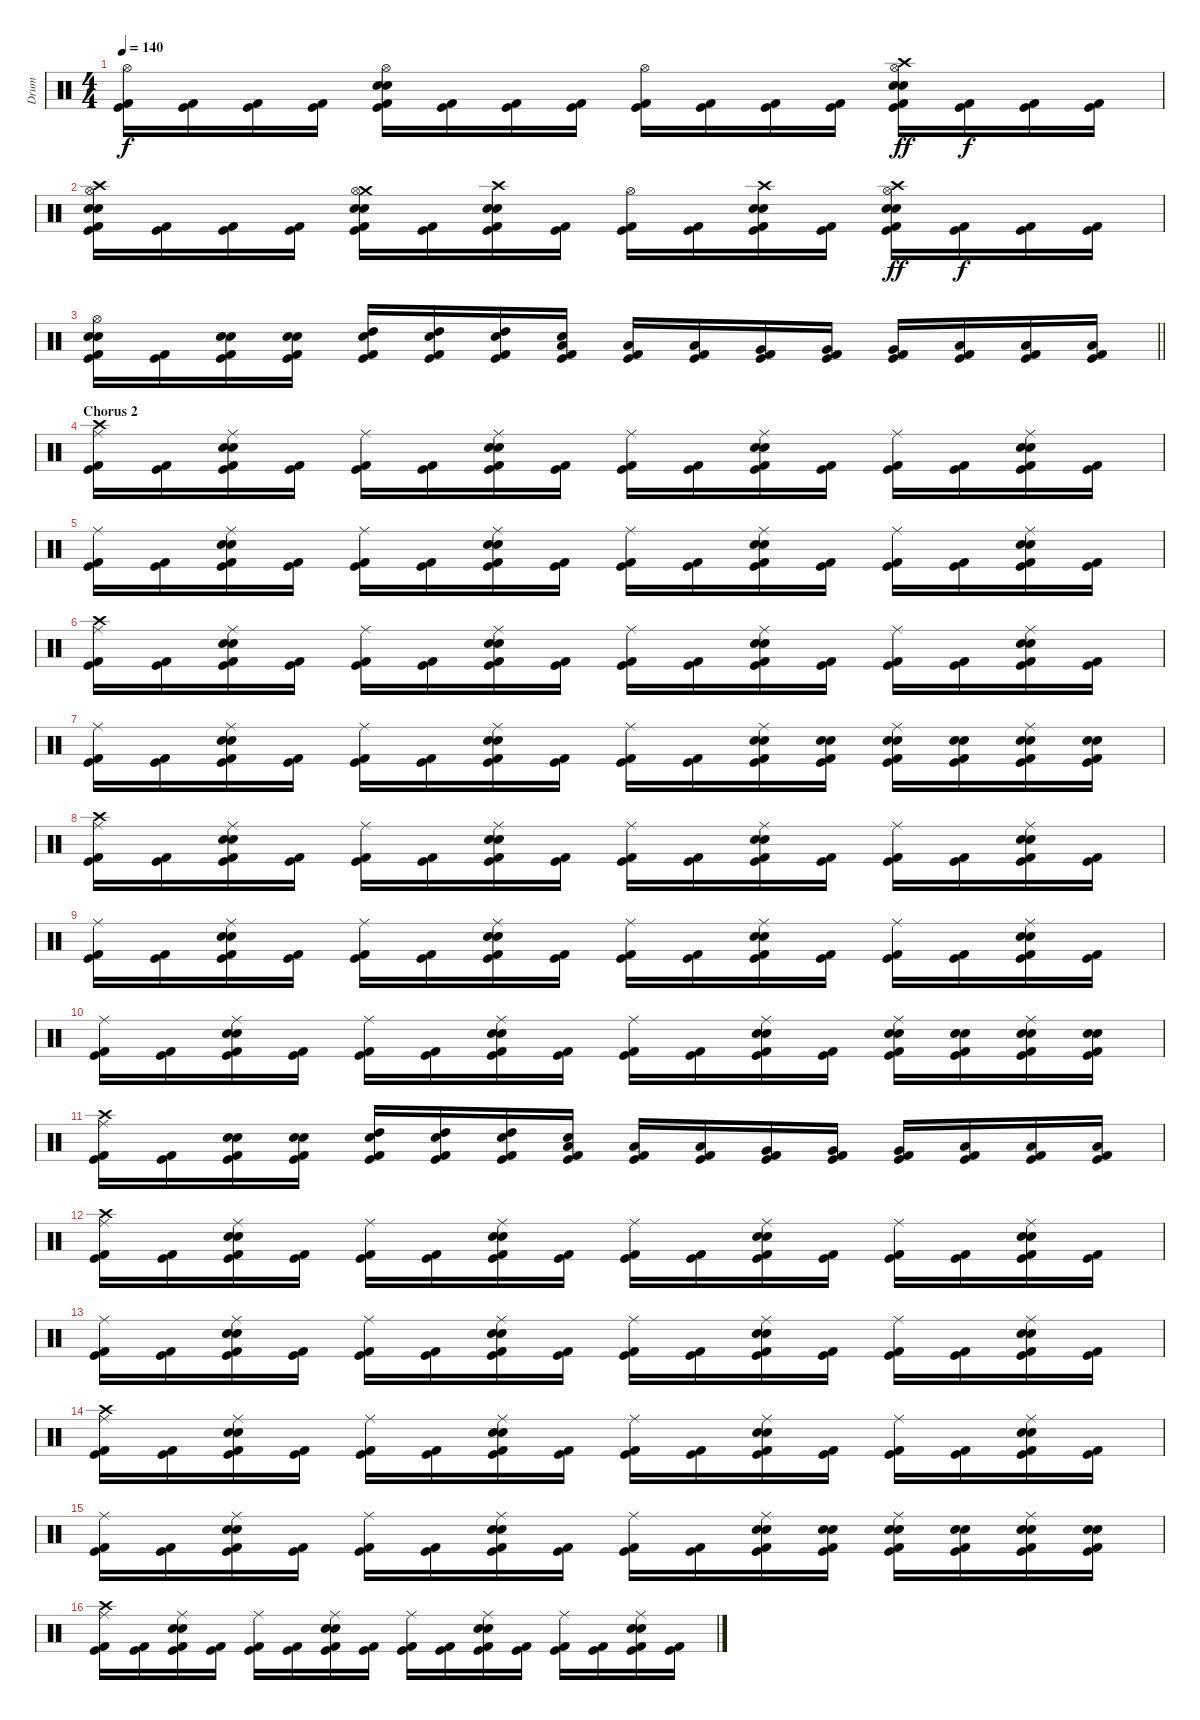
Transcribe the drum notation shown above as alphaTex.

\track ("Drum" "Drum") {instrument percussion}
\staff {score}
\articulation defaults
\ts (4 4)
\tempo 140
\clef neutral
\ks c
("Hi-Hat (open)" "Kick (hit)" "Kick (hit) 2").16{dy f} ("Kick (hit)" "Kick (hit) 2").16 ("Kick (hit)" "Kick (hit) 2").16 ("Kick (hit)" "Kick (hit) 2").16 ("Hi-Hat (open)" "Snare (hit) 2" "Electric Snare (hit)" "Kick (hit)" "Kick (hit) 2").16 ("Kick (hit)" "Kick (hit) 2").16 ("Kick (hit)" "Kick (hit) 2").16 ("Kick (hit)" "Kick (hit) 2").16 ("Hi-Hat (open)" "Kick (hit)" "Kick (hit) 2").16 ("Kick (hit)" "Kick (hit) 2").16 ("Kick (hit)" "Kick (hit) 2").16 ("Kick (hit)" "Kick (hit) 2").16 ("Crash high (hit)" "Hi-Hat (open)" "Snare (hit) 2" "Electric Snare (hit)" "Kick (hit)" "Kick (hit) 2").16{dy ff} ("Kick (hit)" "Kick (hit) 2").16{dy f} ("Kick (hit)" "Kick (hit) 2").16 ("Kick (hit)" "Kick (hit) 2").16 |
("Crash high (hit)" "Hi-Hat (open)" "Snare (hit) 2" "Electric Snare (hit)" "Kick (hit)" "Kick (hit) 2").16 ("Kick (hit)" "Kick (hit) 2").16 ("Kick (hit)" "Kick (hit) 2").16 ("Kick (hit)" "Kick (hit) 2").16 ("Crash medium (hit)" "Hi-Hat (open)" "Snare (hit) 2" "Electric Snare (hit)" "Kick (hit)" "Kick (hit) 2").16 ("Kick (hit)" "Kick (hit) 2").16 ("Crash high (hit)" "Snare (hit) 2" "Electric Snare (hit)" "Kick (hit)" "Kick (hit) 2").16 ("Kick (hit)" "Kick (hit) 2").16 ("Hi-Hat (open)" "Kick (hit)" "Kick (hit) 2").16 ("Kick (hit)" "Kick (hit) 2").16 ("Crash high (hit)" "Snare (hit) 2" "Electric Snare (hit)" "Kick (hit)" "Kick (hit) 2").16 ("Kick (hit)" "Kick (hit) 2").16 ("Crash high (hit)" "Hi-Hat (open)" "Snare (hit) 2" "Electric Snare (hit)" "Kick (hit)" "Kick (hit) 2").16{dy ff} ("Kick (hit)" "Kick (hit) 2").16{dy f} ("Kick (hit)" "Kick (hit) 2").16 ("Kick (hit)" "Kick (hit) 2").16 |
\barLineRight lightlight
("Hi-Hat (open)" "Snare (hit) 2" "Electric Snare (hit)" "Kick (hit)" "Kick (hit) 2").16 ("Kick (hit)" "Kick (hit) 2").16 ("Snare (hit) 2" "Electric Snare (hit)" "Kick (hit)" "Kick (hit) 2").16 ("Snare (hit) 2" "Electric Snare (hit)" "Kick (hit)" "Kick (hit) 2").16 ("High Tom (hit)" "Electric Snare (hit)" "Kick (hit)" "Kick (hit) 2").16 ("High Tom (hit)" "Electric Snare (hit)" "Kick (hit)" "Kick (hit) 2").16 ("High Tom (hit)" "Electric Snare (hit)" "Kick (hit)" "Kick (hit) 2").16 ("Low Tom (hit)" "Electric Snare (hit)" "Kick (hit)" "Kick (hit) 2").16 ("Low Tom (hit)" "Kick (hit)" "Kick (hit) 2").16 ("Low Tom (hit)" "Kick (hit)" "Kick (hit) 2").16 ("Very Low Tom (hit)" "Kick (hit)" "Kick (hit) 2").16 ("Very Low Tom (hit)" "Kick (hit)" "Kick (hit) 2").16 ("Very Low Tom (hit)" "Kick (hit)" "Kick (hit) 2").16 ("Low Floor Tom (hit)" "Kick (hit)" "Kick (hit) 2").16 ("Low Floor Tom (hit)" "Kick (hit)" "Kick (hit) 2").16 ("Low Floor Tom (hit)" "Kick (hit)" "Kick (hit) 2").16 |
\section ("" "Chorus 2")
("Crash high (hit)" "Ride (middle)" "Kick (hit)" "Kick (hit) 2").16 ("Kick (hit)" "Kick (hit) 2").16 ("Ride (middle)" "Snare (hit) 2" "Electric Snare (hit)" "Kick (hit)" "Kick (hit) 2").16 ("Kick (hit)" "Kick (hit) 2").16 ("Ride (middle)" "Kick (hit)" "Kick (hit) 2").16 ("Kick (hit)" "Kick (hit) 2").16 ("Ride (middle)" "Snare (hit) 2" "Electric Snare (hit)" "Kick (hit)" "Kick (hit) 2").16 ("Kick (hit)" "Kick (hit) 2").16 ("Ride (middle)" "Kick (hit)" "Kick (hit) 2").16 ("Kick (hit)" "Kick (hit) 2").16 ("Ride (middle)" "Snare (hit) 2" "Electric Snare (hit)" "Kick (hit)" "Kick (hit) 2").16 ("Kick (hit)" "Kick (hit) 2").16 ("Ride (middle)" "Kick (hit)" "Kick (hit) 2").16 ("Kick (hit)" "Kick (hit) 2").16 ("Ride (middle)" "Snare (hit) 2" "Electric Snare (hit)" "Kick (hit)" "Kick (hit) 2").16 ("Kick (hit)" "Kick (hit) 2").16 |
("Ride (middle)" "Kick (hit)" "Kick (hit) 2").16 ("Kick (hit)" "Kick (hit) 2").16 ("Ride (middle)" "Snare (hit) 2" "Electric Snare (hit)" "Kick (hit)" "Kick (hit) 2").16 ("Kick (hit)" "Kick (hit) 2").16 ("Ride (middle)" "Kick (hit)" "Kick (hit) 2").16 ("Kick (hit)" "Kick (hit) 2").16 ("Ride (middle)" "Snare (hit) 2" "Electric Snare (hit)" "Kick (hit)" "Kick (hit) 2").16 ("Kick (hit)" "Kick (hit) 2").16 ("Ride (middle)" "Kick (hit)" "Kick (hit) 2").16 ("Kick (hit)" "Kick (hit) 2").16 ("Ride (middle)" "Snare (hit) 2" "Electric Snare (hit)" "Kick (hit)" "Kick (hit) 2").16 ("Kick (hit)" "Kick (hit) 2").16 ("Ride (middle)" "Kick (hit)" "Kick (hit) 2").16 ("Kick (hit)" "Kick (hit) 2").16 ("Ride (middle)" "Snare (hit) 2" "Electric Snare (hit)" "Kick (hit)" "Kick (hit) 2").16 ("Kick (hit)" "Kick (hit) 2").16 |
("Crash high (hit)" "Ride (middle)" "Kick (hit)" "Kick (hit) 2").16 ("Kick (hit)" "Kick (hit) 2").16 ("Ride (middle)" "Snare (hit) 2" "Electric Snare (hit)" "Kick (hit)" "Kick (hit) 2").16 ("Kick (hit)" "Kick (hit) 2").16 ("Ride (middle)" "Kick (hit)" "Kick (hit) 2").16 ("Kick (hit)" "Kick (hit) 2").16 ("Ride (middle)" "Snare (hit) 2" "Electric Snare (hit)" "Kick (hit)" "Kick (hit) 2").16 ("Kick (hit)" "Kick (hit) 2").16 ("Ride (middle)" "Kick (hit)" "Kick (hit) 2").16 ("Kick (hit)" "Kick (hit) 2").16 ("Ride (middle)" "Snare (hit) 2" "Electric Snare (hit)" "Kick (hit)" "Kick (hit) 2").16 ("Kick (hit)" "Kick (hit) 2").16 ("Ride (middle)" "Kick (hit)" "Kick (hit) 2").16 ("Kick (hit)" "Kick (hit) 2").16 ("Ride (middle)" "Snare (hit) 2" "Electric Snare (hit)" "Kick (hit)" "Kick (hit) 2").16 ("Kick (hit)" "Kick (hit) 2").16 |
("Ride (middle)" "Kick (hit)" "Kick (hit) 2").16 ("Kick (hit)" "Kick (hit) 2").16 ("Ride (middle)" "Snare (hit) 2" "Electric Snare (hit)" "Kick (hit)" "Kick (hit) 2").16 ("Kick (hit)" "Kick (hit) 2").16 ("Ride (middle)" "Kick (hit)" "Kick (hit) 2").16 ("Kick (hit)" "Kick (hit) 2").16 ("Ride (middle)" "Snare (hit) 2" "Electric Snare (hit)" "Kick (hit)" "Kick (hit) 2").16 ("Kick (hit)" "Kick (hit) 2").16 ("Ride (middle)" "Kick (hit)" "Kick (hit) 2").16 ("Kick (hit)" "Kick (hit) 2").16 ("Ride (middle)" "Snare (hit) 2" "Electric Snare (hit)" "Kick (hit)" "Kick (hit) 2").16 ("Snare (hit) 2" "Electric Snare (hit)" "Kick (hit)" "Kick (hit) 2").16 ("Ride (middle)" "Snare (hit) 2" "Electric Snare (hit)" "Kick (hit)" "Kick (hit) 2").16 ("Snare (hit) 2" "Electric Snare (hit)" "Kick (hit)" "Kick (hit) 2").16 ("Ride (middle)" "Snare (hit) 2" "Electric Snare (hit)" "Kick (hit)" "Kick (hit) 2").16 ("Snare (hit) 2" "Electric Snare (hit)" "Kick (hit)" "Kick (hit) 2").16 |
("Crash high (hit)" "Ride (middle)" "Kick (hit)" "Kick (hit) 2").16 ("Kick (hit)" "Kick (hit) 2").16 ("Ride (middle)" "Snare (hit) 2" "Electric Snare (hit)" "Kick (hit)" "Kick (hit) 2").16 ("Kick (hit)" "Kick (hit) 2").16 ("Ride (middle)" "Kick (hit)" "Kick (hit) 2").16 ("Kick (hit)" "Kick (hit) 2").16 ("Ride (middle)" "Snare (hit) 2" "Electric Snare (hit)" "Kick (hit)" "Kick (hit) 2").16 ("Kick (hit)" "Kick (hit) 2").16 ("Ride (middle)" "Kick (hit)" "Kick (hit) 2").16 ("Kick (hit)" "Kick (hit) 2").16 ("Ride (middle)" "Snare (hit) 2" "Electric Snare (hit)" "Kick (hit)" "Kick (hit) 2").16 ("Kick (hit)" "Kick (hit) 2").16 ("Ride (middle)" "Kick (hit)" "Kick (hit) 2").16 ("Kick (hit)" "Kick (hit) 2").16 ("Ride (middle)" "Snare (hit) 2" "Electric Snare (hit)" "Kick (hit)" "Kick (hit) 2").16 ("Kick (hit)" "Kick (hit) 2").16 |
("Ride (middle)" "Kick (hit)" "Kick (hit) 2").16 ("Kick (hit)" "Kick (hit) 2").16 ("Ride (middle)" "Snare (hit) 2" "Electric Snare (hit)" "Kick (hit)" "Kick (hit) 2").16 ("Kick (hit)" "Kick (hit) 2").16 ("Ride (middle)" "Kick (hit)" "Kick (hit) 2").16 ("Kick (hit)" "Kick (hit) 2").16 ("Ride (middle)" "Snare (hit) 2" "Electric Snare (hit)" "Kick (hit)" "Kick (hit) 2").16 ("Kick (hit)" "Kick (hit) 2").16 ("Ride (middle)" "Kick (hit)" "Kick (hit) 2").16 ("Kick (hit)" "Kick (hit) 2").16 ("Ride (middle)" "Snare (hit) 2" "Electric Snare (hit)" "Kick (hit)" "Kick (hit) 2").16 ("Kick (hit)" "Kick (hit) 2").16 ("Ride (middle)" "Kick (hit)" "Kick (hit) 2").16 ("Kick (hit)" "Kick (hit) 2").16 ("Ride (middle)" "Snare (hit) 2" "Electric Snare (hit)" "Kick (hit)" "Kick (hit) 2").16 ("Kick (hit)" "Kick (hit) 2").16 |
("Ride (middle)" "Kick (hit)" "Kick (hit) 2").16 ("Kick (hit)" "Kick (hit) 2").16 ("Ride (middle)" "Snare (hit) 2" "Electric Snare (hit)" "Kick (hit)" "Kick (hit) 2").16 ("Kick (hit)" "Kick (hit) 2").16 ("Ride (middle)" "Kick (hit)" "Kick (hit) 2").16 ("Kick (hit)" "Kick (hit) 2").16 ("Ride (middle)" "Snare (hit) 2" "Electric Snare (hit)" "Kick (hit)" "Kick (hit) 2").16 ("Kick (hit)" "Kick (hit) 2").16 ("Ride (middle)" "Kick (hit)" "Kick (hit) 2").16 ("Kick (hit)" "Kick (hit) 2").16 ("Ride (middle)" "Snare (hit) 2" "Electric Snare (hit)" "Kick (hit)" "Kick (hit) 2").16 ("Kick (hit)" "Kick (hit) 2").16 ("Ride (middle)" "Snare (hit) 2" "Electric Snare (hit)" "Kick (hit)" "Kick (hit) 2").16 ("Snare (hit) 2" "Electric Snare (hit)" "Kick (hit)" "Kick (hit) 2").16 ("Ride (middle)" "Snare (hit) 2" "Electric Snare (hit)" "Kick (hit)" "Kick (hit) 2").16 ("Snare (hit) 2" "Electric Snare (hit)" "Kick (hit)" "Kick (hit) 2").16 |
("Crash high (hit)" "Ride (middle)" "Kick (hit)" "Kick (hit) 2").16 ("Kick (hit)" "Kick (hit) 2").16 ("Snare (hit) 2" "Electric Snare (hit)" "Kick (hit)" "Kick (hit) 2").16 ("Snare (hit) 2" "Electric Snare (hit)" "Kick (hit)" "Kick (hit) 2").16 ("High Tom (hit)" "Electric Snare (hit)" "Kick (hit)" "Kick (hit) 2").16 ("High Tom (hit)" "Electric Snare (hit)" "Kick (hit)" "Kick (hit) 2").16 ("High Tom (hit)" "Electric Snare (hit)" "Kick (hit)" "Kick (hit) 2").16 ("Low Tom (hit)" "Electric Snare (hit)" "Kick (hit)" "Kick (hit) 2").16 ("Low Tom (hit)" "Kick (hit)" "Kick (hit) 2").16 ("Low Tom (hit)" "Kick (hit)" "Kick (hit) 2").16 ("Very Low Tom (hit)" "Kick (hit)" "Kick (hit) 2").16 ("Very Low Tom (hit)" "Kick (hit)" "Kick (hit) 2").16 ("Very Low Tom (hit)" "Kick (hit)" "Kick (hit) 2").16 ("Low Floor Tom (hit)" "Kick (hit)" "Kick (hit) 2").16 ("Low Floor Tom (hit)" "Kick (hit)" "Kick (hit) 2").16 ("Low Floor Tom (hit)" "Kick (hit)" "Kick (hit) 2").16 |
("Crash high (hit)" "Ride (middle)" "Kick (hit)" "Kick (hit) 2").16 ("Kick (hit)" "Kick (hit) 2").16 ("Ride (middle)" "Snare (hit) 2" "Electric Snare (hit)" "Kick (hit)" "Kick (hit) 2").16 ("Kick (hit)" "Kick (hit) 2").16 ("Ride (middle)" "Kick (hit)" "Kick (hit) 2").16 ("Kick (hit)" "Kick (hit) 2").16 ("Ride (middle)" "Snare (hit) 2" "Electric Snare (hit)" "Kick (hit)" "Kick (hit) 2").16 ("Kick (hit)" "Kick (hit) 2").16 ("Ride (middle)" "Kick (hit)" "Kick (hit) 2").16 ("Kick (hit)" "Kick (hit) 2").16 ("Ride (middle)" "Snare (hit) 2" "Electric Snare (hit)" "Kick (hit)" "Kick (hit) 2").16 ("Kick (hit)" "Kick (hit) 2").16 ("Ride (middle)" "Kick (hit)" "Kick (hit) 2").16 ("Kick (hit)" "Kick (hit) 2").16 ("Ride (middle)" "Snare (hit) 2" "Electric Snare (hit)" "Kick (hit)" "Kick (hit) 2").16 ("Kick (hit)" "Kick (hit) 2").16 |
("Ride (middle)" "Kick (hit)" "Kick (hit) 2").16 ("Kick (hit)" "Kick (hit) 2").16 ("Ride (middle)" "Snare (hit) 2" "Electric Snare (hit)" "Kick (hit)" "Kick (hit) 2").16 ("Kick (hit)" "Kick (hit) 2").16 ("Ride (middle)" "Kick (hit)" "Kick (hit) 2").16 ("Kick (hit)" "Kick (hit) 2").16 ("Ride (middle)" "Snare (hit) 2" "Electric Snare (hit)" "Kick (hit)" "Kick (hit) 2").16 ("Kick (hit)" "Kick (hit) 2").16 ("Ride (middle)" "Kick (hit)" "Kick (hit) 2").16 ("Kick (hit)" "Kick (hit) 2").16 ("Ride (middle)" "Snare (hit) 2" "Electric Snare (hit)" "Kick (hit)" "Kick (hit) 2").16 ("Kick (hit)" "Kick (hit) 2").16 ("Ride (middle)" "Kick (hit)" "Kick (hit) 2").16 ("Kick (hit)" "Kick (hit) 2").16 ("Ride (middle)" "Snare (hit) 2" "Electric Snare (hit)" "Kick (hit)" "Kick (hit) 2").16 ("Kick (hit)" "Kick (hit) 2").16 |
("Crash high (hit)" "Ride (middle)" "Kick (hit)" "Kick (hit) 2").16 ("Kick (hit)" "Kick (hit) 2").16 ("Ride (middle)" "Snare (hit) 2" "Electric Snare (hit)" "Kick (hit)" "Kick (hit) 2").16 ("Kick (hit)" "Kick (hit) 2").16 ("Ride (middle)" "Kick (hit)" "Kick (hit) 2").16 ("Kick (hit)" "Kick (hit) 2").16 ("Ride (middle)" "Snare (hit) 2" "Electric Snare (hit)" "Kick (hit)" "Kick (hit) 2").16 ("Kick (hit)" "Kick (hit) 2").16 ("Ride (middle)" "Kick (hit)" "Kick (hit) 2").16 ("Kick (hit)" "Kick (hit) 2").16 ("Ride (middle)" "Snare (hit) 2" "Electric Snare (hit)" "Kick (hit)" "Kick (hit) 2").16 ("Kick (hit)" "Kick (hit) 2").16 ("Ride (middle)" "Kick (hit)" "Kick (hit) 2").16 ("Kick (hit)" "Kick (hit) 2").16 ("Ride (middle)" "Snare (hit) 2" "Electric Snare (hit)" "Kick (hit)" "Kick (hit) 2").16 ("Kick (hit)" "Kick (hit) 2").16 |
("Ride (middle)" "Kick (hit)" "Kick (hit) 2").16 ("Kick (hit)" "Kick (hit) 2").16 ("Ride (middle)" "Snare (hit) 2" "Electric Snare (hit)" "Kick (hit)" "Kick (hit) 2").16 ("Kick (hit)" "Kick (hit) 2").16 ("Ride (middle)" "Kick (hit)" "Kick (hit) 2").16 ("Kick (hit)" "Kick (hit) 2").16 ("Ride (middle)" "Snare (hit) 2" "Electric Snare (hit)" "Kick (hit)" "Kick (hit) 2").16 ("Kick (hit)" "Kick (hit) 2").16 ("Ride (middle)" "Kick (hit)" "Kick (hit) 2").16 ("Kick (hit)" "Kick (hit) 2").16 ("Ride (middle)" "Snare (hit) 2" "Electric Snare (hit)" "Kick (hit)" "Kick (hit) 2").16 ("Snare (hit) 2" "Electric Snare (hit)" "Kick (hit)" "Kick (hit) 2").16 ("Ride (middle)" "Snare (hit) 2" "Electric Snare (hit)" "Kick (hit)" "Kick (hit) 2").16 ("Snare (hit) 2" "Electric Snare (hit)" "Kick (hit)" "Kick (hit) 2").16 ("Ride (middle)" "Snare (hit) 2" "Electric Snare (hit)" "Kick (hit)" "Kick (hit) 2").16 ("Snare (hit) 2" "Electric Snare (hit)" "Kick (hit)" "Kick (hit) 2").16 |
("Crash high (hit)" "Ride (middle)" "Kick (hit)" "Kick (hit) 2").16 ("Kick (hit)" "Kick (hit) 2").16 ("Ride (middle)" "Snare (hit) 2" "Electric Snare (hit)" "Kick (hit)" "Kick (hit) 2").16 ("Kick (hit)" "Kick (hit) 2").16 ("Ride (middle)" "Kick (hit)" "Kick (hit) 2").16 ("Kick (hit)" "Kick (hit) 2").16 ("Ride (middle)" "Snare (hit) 2" "Electric Snare (hit)" "Kick (hit)" "Kick (hit) 2").16 ("Kick (hit)" "Kick (hit) 2").16 ("Ride (middle)" "Kick (hit)" "Kick (hit) 2").16 ("Kick (hit)" "Kick (hit) 2").16 ("Ride (middle)" "Snare (hit) 2" "Electric Snare (hit)" "Kick (hit)" "Kick (hit) 2").16 ("Kick (hit)" "Kick (hit) 2").16 ("Ride (middle)" "Kick (hit)" "Kick (hit) 2").16 ("Kick (hit)" "Kick (hit) 2").16 ("Ride (middle)" "Snare (hit) 2" "Electric Snare (hit)" "Kick (hit)" "Kick (hit) 2").16 ("Kick (hit)" "Kick (hit) 2").16
